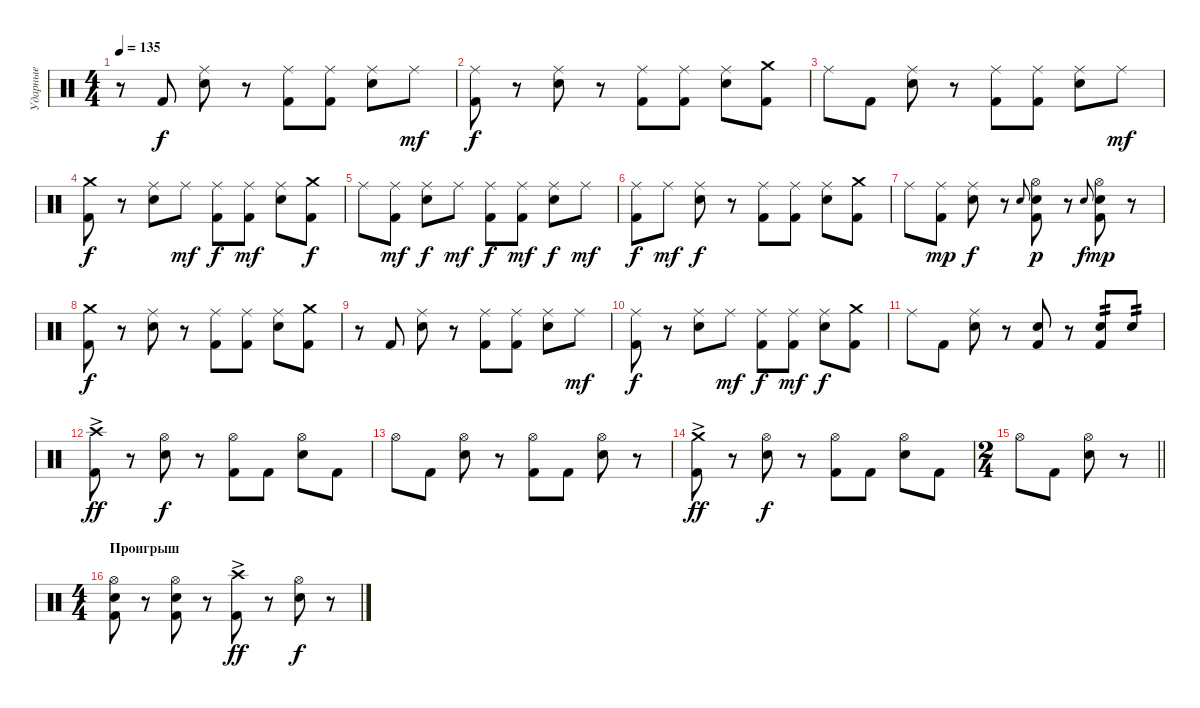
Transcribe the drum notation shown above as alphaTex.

\track ("Ударные" "Ударные") {instrument percussion}
\staff
\articulation defaults
\ts (4 4)
\tempo 135
\clef neutral
\ks c
r.8{dy f} "Kick (hit) 2".8 ("Ride (middle)" "Electric Snare (hit)").8 r.8 ("Ride (middle)" "Kick (hit) 2").8 ("Ride (middle)" "Kick (hit) 2").8 ("Ride (middle)" "Electric Snare (hit)").8 "Ride (middle)".8{dy mf} |
("Ride (middle)" "Kick (hit) 2").8{dy f} r.8 ("Ride (middle)" "Electric Snare (hit)").8 r.8 ("Ride (middle)" "Kick (hit) 2").8 ("Ride (middle)" "Kick (hit) 2").8 ("Ride (middle)" "Electric Snare (hit)").8 ("Crash medium (hit)" "Kick (hit) 2").8 |
"Ride (middle)".8 "Kick (hit) 2".8 ("Ride (middle)" "Electric Snare (hit)").8 r.8 ("Ride (middle)" "Kick (hit) 2").8 ("Ride (middle)" "Kick (hit) 2").8 ("Ride (middle)" "Electric Snare (hit)").8 "Ride (middle)".8{dy mf} |
("Crash medium (hit)" "Kick (hit) 2").8{dy f} r.8 ("Ride (middle)" "Electric Snare (hit)").8 "Ride (middle)".8{dy mf} ("Ride (middle)" "Kick (hit) 2").8{dy f} ("Ride (middle)" "Kick (hit) 2").8{dy mf} ("Ride (middle)" "Electric Snare (hit)").8 ("Crash medium (hit)" "Kick (hit) 2").8{dy f} |
"Ride (middle)".8 ("Ride (middle)" "Kick (hit) 2").8{dy mf} ("Ride (middle)" "Electric Snare (hit)").8{dy f} "Ride (middle)".8{dy mf} ("Ride (middle)" "Kick (hit) 2").8{dy f} ("Ride (middle)" "Kick (hit) 2").8{dy mf} ("Ride (middle)" "Electric Snare (hit)").8{dy f} "Ride (middle)".8{dy mf} |
("Ride (middle)" "Kick (hit) 2").8{dy f} "Ride (middle)".8{dy mf} ("Ride (middle)" "Electric Snare (hit)").8{dy f} r.8 ("Ride (middle)" "Kick (hit) 2").8 ("Ride (middle)" "Kick (hit) 2").8 ("Ride (middle)" "Electric Snare (hit)").8 ("Crash medium (hit)" "Kick (hit) 2").8 |
"Ride (middle)".8 ("Ride (middle)" "Kick (hit) 2").8{dy mp} ("Ride (middle)" "Electric Snare (hit)").8{dy f} r.8 "Electric Snare (hit)".8{gr onbeat} ("Hi-Hat (open)" "Electric Snare (hit)" "Kick (hit) 2").8{dy p} r.8 "Electric Snare (hit)".8{gr onbeat dy f} ("Hi-Hat (open)" "Electric Snare (hit)" "Kick (hit) 2").8{dy mp} r.8 |
("Crash medium (hit)" "Kick (hit) 2").8{dy f} r.8 ("Ride (middle)" "Electric Snare (hit)").8 r.8 ("Ride (middle)" "Kick (hit) 2").8 ("Ride (middle)" "Kick (hit) 2").8 ("Ride (middle)" "Electric Snare (hit)").8 ("Crash medium (hit)" "Kick (hit) 2").8 |
r.8 "Kick (hit) 2".8 ("Ride (middle)" "Electric Snare (hit)").8 r.8 ("Ride (middle)" "Kick (hit) 2").8 ("Ride (middle)" "Kick (hit) 2").8 ("Ride (middle)" "Electric Snare (hit)").8 "Ride (middle)".8{dy mf} |
("Ride (middle)" "Kick (hit) 2").8{dy f} r.8 ("Ride (middle)" "Electric Snare (hit)").8 "Ride (middle)".8{dy mf} ("Ride (middle)" "Kick (hit) 2").8{dy f} ("Ride (middle)" "Kick (hit) 2").8{dy mf} ("Ride (middle)" "Electric Snare (hit)").8{dy f} ("Crash medium (hit)" "Kick (hit) 2").8 |
"Ride (middle)".8 "Kick (hit) 2".8 ("Ride (middle)" "Electric Snare (hit)").8 r.8 ("Electric Snare (hit)" "Kick (hit) 2").8 r.8 ("Electric Snare (hit)" "Kick (hit) 2").8{tp 2} "Electric Snare (hit)".8{tp 2} |
("Crash high (hit)"{ac} "Kick (hit) 2").8{dy ff} r.8 ("Hi-Hat (open)" "Electric Snare (hit)").8{dy f} r.8 ("Hi-Hat (open)" "Kick (hit) 2").8 "Kick (hit) 2".8 ("Hi-Hat (open)" "Electric Snare (hit)").8 "Kick (hit) 2".8 |
"Hi-Hat (open)".8 "Kick (hit) 2".8 ("Hi-Hat (open)" "Electric Snare (hit)").8 r.8 ("Hi-Hat (open)" "Kick (hit) 2").8 "Kick (hit) 2".8 ("Hi-Hat (open)" "Electric Snare (hit)").8 r.8 |
("Crash medium (hit)"{ac} "Kick (hit) 2").8{dy ff} r.8 ("Hi-Hat (open)" "Electric Snare (hit)").8{dy f} r.8 ("Hi-Hat (open)" "Kick (hit) 2").8 "Kick (hit) 2".8 ("Hi-Hat (open)" "Electric Snare (hit)").8 "Kick (hit) 2".8 |
\ts (2 4)
\barLineRight lightlight "Hi-Hat (open)".8 "Kick (hit) 2".8
("Hi-Hat (open)" "Electric Snare (hit)").8 r.8 |
\ts (4 4)
\section ("" "Проигрыш")
("Hi-Hat (open)" "Electric Snare (hit)" "Kick (hit) 2").8 r.8 ("Hi-Hat (open)" "Electric Snare (hit)" "Kick (hit) 2").8 r.8 ("Crash high (hit)"{ac} "Kick (hit) 2").8{dy ff} r.8 ("Hi-Hat (open)" "Electric Snare (hit)").8{dy f} r.8
